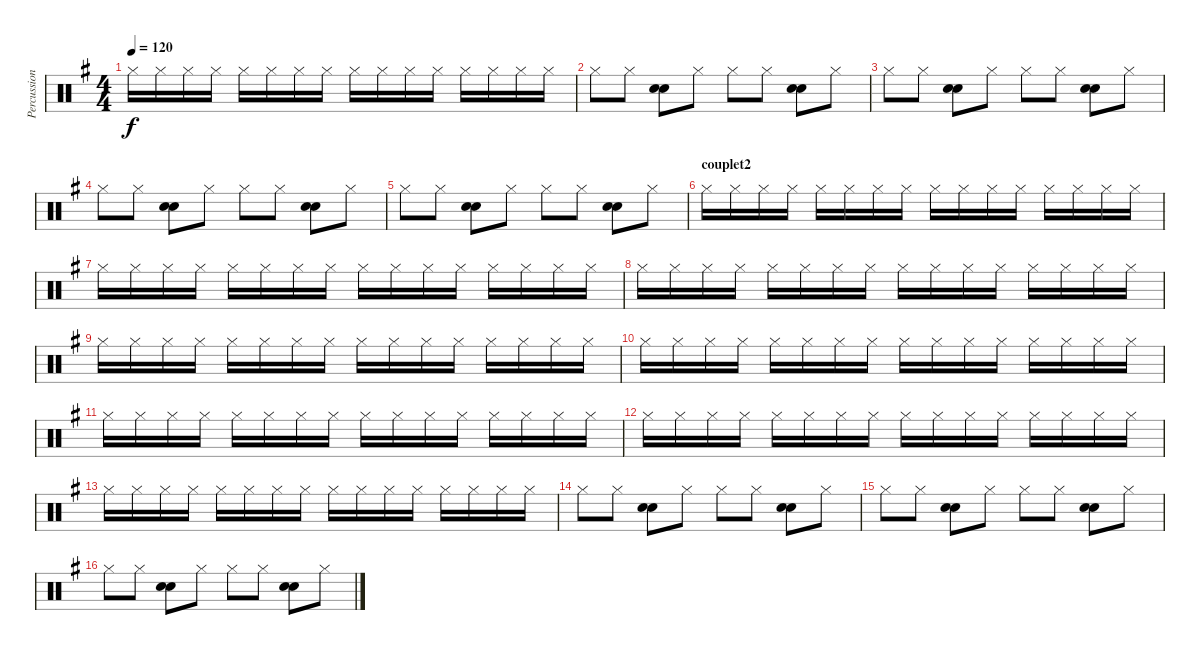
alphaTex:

\track ("Percussions" "Percussion") {instrument percussion}
\staff {score}
\articulation defaults
\ts (4 4)
\tempo 120
\clef neutral
\ks g "Hi-Hat (closed)".16{dy f} "Hi-Hat (closed)".16 "Hi-Hat (closed)".16 "Hi-Hat (closed)".16 "Hi-Hat (closed)".16 "Hi-Hat (closed)".16 "Hi-Hat (closed)".16 "Hi-Hat (closed)".16 "Hi-Hat (closed)".16 "Hi-Hat (closed)".16 "Hi-Hat (closed)".16 "Hi-Hat (closed)".16 "Hi-Hat (closed)".16 "Hi-Hat (closed)".16 "Hi-Hat (closed)".16 "Hi-Hat (closed)".16
|
"Hi-Hat (closed)".8{volume 13} "Hi-Hat (closed)".8 ("Snare (hit) 2" "Electric Snare (hit)").8 "Hi-Hat (closed)".8 "Hi-Hat (closed)".8 "Hi-Hat (closed)".8 ("Snare (hit) 2" "Electric Snare (hit)").8 "Hi-Hat (closed)".8 |
"Hi-Hat (closed)".8 "Hi-Hat (closed)".8 ("Snare (hit) 2" "Electric Snare (hit)").8 "Hi-Hat (closed)".8 "Hi-Hat (closed)".8 "Hi-Hat (closed)".8 ("Snare (hit) 2" "Electric Snare (hit)").8 "Hi-Hat (closed)".8 |
"Hi-Hat (closed)".8 "Hi-Hat (closed)".8 ("Snare (hit) 2" "Electric Snare (hit)").8 "Hi-Hat (closed)".8 "Hi-Hat (closed)".8 "Hi-Hat (closed)".8 ("Snare (hit) 2" "Electric Snare (hit)").8 "Hi-Hat (closed)".8 |
"Hi-Hat (closed)".8 "Hi-Hat (closed)".8 ("Snare (hit) 2" "Electric Snare (hit)").8 "Hi-Hat (closed)".8 "Hi-Hat (closed)".8 "Hi-Hat (closed)".8 ("Snare (hit) 2" "Electric Snare (hit)").8 "Hi-Hat (closed)".8 |
\section ("" "couplet2")
"Hi-Hat (closed)".16{volume 7} "Hi-Hat (closed)".16 "Hi-Hat (closed)".16 "Hi-Hat (closed)".16 "Hi-Hat (closed)".16 "Hi-Hat (closed)".16 "Hi-Hat (closed)".16 "Hi-Hat (closed)".16 "Hi-Hat (closed)".16 "Hi-Hat (closed)".16 "Hi-Hat (closed)".16 "Hi-Hat (closed)".16 "Hi-Hat (closed)".16 "Hi-Hat (closed)".16 "Hi-Hat (closed)".16 "Hi-Hat (closed)".16 |
"Hi-Hat (closed)".16 "Hi-Hat (closed)".16 "Hi-Hat (closed)".16 "Hi-Hat (closed)".16 "Hi-Hat (closed)".16 "Hi-Hat (closed)".16 "Hi-Hat (closed)".16 "Hi-Hat (closed)".16 "Hi-Hat (closed)".16 "Hi-Hat (closed)".16 "Hi-Hat (closed)".16 "Hi-Hat (closed)".16 "Hi-Hat (closed)".16 "Hi-Hat (closed)".16 "Hi-Hat (closed)".16 "Hi-Hat (closed)".16 |
"Hi-Hat (closed)".16 "Hi-Hat (closed)".16 "Hi-Hat (closed)".16 "Hi-Hat (closed)".16 "Hi-Hat (closed)".16 "Hi-Hat (closed)".16 "Hi-Hat (closed)".16 "Hi-Hat (closed)".16 "Hi-Hat (closed)".16 "Hi-Hat (closed)".16 "Hi-Hat (closed)".16 "Hi-Hat (closed)".16 "Hi-Hat (closed)".16 "Hi-Hat (closed)".16 "Hi-Hat (closed)".16 "Hi-Hat (closed)".16 |
"Hi-Hat (closed)".16 "Hi-Hat (closed)".16 "Hi-Hat (closed)".16 "Hi-Hat (closed)".16 "Hi-Hat (closed)".16 "Hi-Hat (closed)".16 "Hi-Hat (closed)".16 "Hi-Hat (closed)".16 "Hi-Hat (closed)".16 "Hi-Hat (closed)".16 "Hi-Hat (closed)".16 "Hi-Hat (closed)".16 "Hi-Hat (closed)".16 "Hi-Hat (closed)".16 "Hi-Hat (closed)".16 "Hi-Hat (closed)".16 |
"Hi-Hat (closed)".16 "Hi-Hat (closed)".16 "Hi-Hat (closed)".16 "Hi-Hat (closed)".16 "Hi-Hat (closed)".16 "Hi-Hat (closed)".16 "Hi-Hat (closed)".16 "Hi-Hat (closed)".16 "Hi-Hat (closed)".16 "Hi-Hat (closed)".16 "Hi-Hat (closed)".16 "Hi-Hat (closed)".16 "Hi-Hat (closed)".16 "Hi-Hat (closed)".16 "Hi-Hat (closed)".16 "Hi-Hat (closed)".16 |
"Hi-Hat (closed)".16 "Hi-Hat (closed)".16 "Hi-Hat (closed)".16 "Hi-Hat (closed)".16 "Hi-Hat (closed)".16 "Hi-Hat (closed)".16 "Hi-Hat (closed)".16 "Hi-Hat (closed)".16 "Hi-Hat (closed)".16 "Hi-Hat (closed)".16 "Hi-Hat (closed)".16 "Hi-Hat (closed)".16 "Hi-Hat (closed)".16 "Hi-Hat (closed)".16 "Hi-Hat (closed)".16 "Hi-Hat (closed)".16 |
"Hi-Hat (closed)".16 "Hi-Hat (closed)".16 "Hi-Hat (closed)".16 "Hi-Hat (closed)".16 "Hi-Hat (closed)".16 "Hi-Hat (closed)".16 "Hi-Hat (closed)".16 "Hi-Hat (closed)".16 "Hi-Hat (closed)".16 "Hi-Hat (closed)".16 "Hi-Hat (closed)".16 "Hi-Hat (closed)".16 "Hi-Hat (closed)".16 "Hi-Hat (closed)".16 "Hi-Hat (closed)".16 "Hi-Hat (closed)".16 |
"Hi-Hat (closed)".16 "Hi-Hat (closed)".16 "Hi-Hat (closed)".16 "Hi-Hat (closed)".16 "Hi-Hat (closed)".16 "Hi-Hat (closed)".16 "Hi-Hat (closed)".16 "Hi-Hat (closed)".16 "Hi-Hat (closed)".16 "Hi-Hat (closed)".16 "Hi-Hat (closed)".16 "Hi-Hat (closed)".16 "Hi-Hat (closed)".16 "Hi-Hat (closed)".16 "Hi-Hat (closed)".16 "Hi-Hat (closed)".16 |
"Hi-Hat (closed)".8{volume 13} "Hi-Hat (closed)".8 ("Snare (hit) 2" "Electric Snare (hit)").8 "Hi-Hat (closed)".8 "Hi-Hat (closed)".8 "Hi-Hat (closed)".8 ("Snare (hit) 2" "Electric Snare (hit)").8 "Hi-Hat (closed)".8 |
"Hi-Hat (closed)".8 "Hi-Hat (closed)".8 ("Snare (hit) 2" "Electric Snare (hit)").8 "Hi-Hat (closed)".8 "Hi-Hat (closed)".8 "Hi-Hat (closed)".8 ("Snare (hit) 2" "Electric Snare (hit)").8 "Hi-Hat (closed)".8 |
"Hi-Hat (closed)".8 "Hi-Hat (closed)".8 ("Snare (hit) 2" "Electric Snare (hit)").8 "Hi-Hat (closed)".8 "Hi-Hat (closed)".8 "Hi-Hat (closed)".8 ("Snare (hit) 2" "Electric Snare (hit)").8 "Hi-Hat (closed)".8
